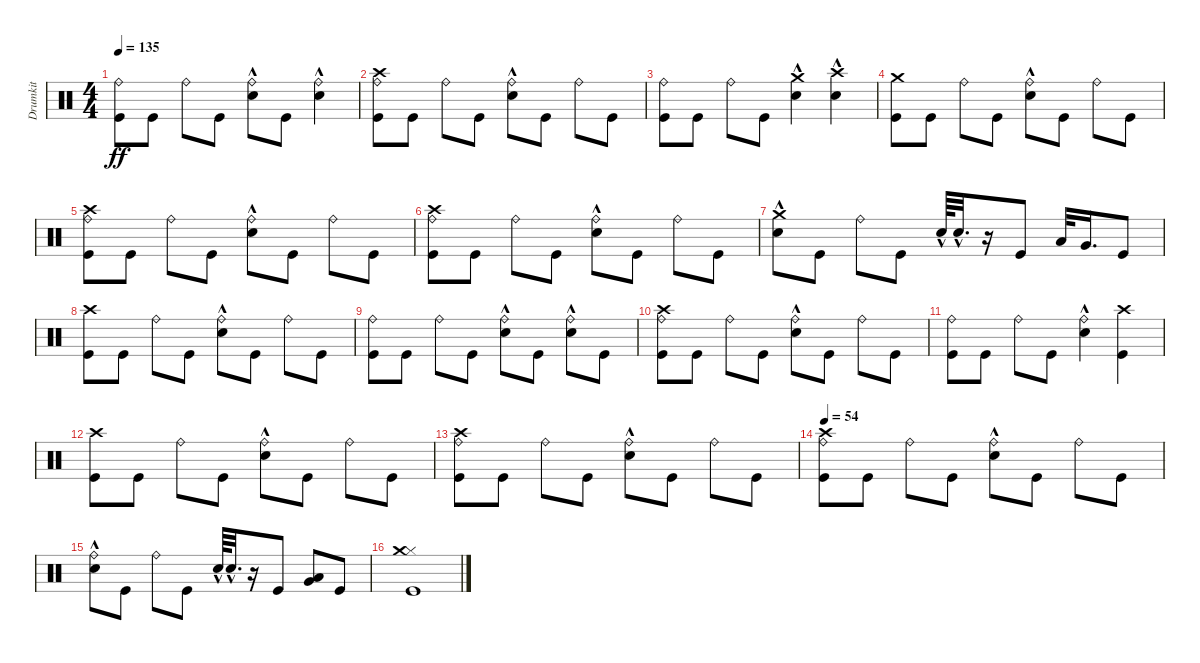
\track ("Drumkit" "Drumkit") {instrument percussion}
\staff {score}
\articulation defaults
\ts (4 4)
\tempo 135
\clef neutral
\ks c
("Ride (bell)" "Kick (hit)").8{dy ff} "Kick (hit)".8 "Ride (bell)".8 "Kick (hit)".8 ("Snare (hit) 2"{hac} "Ride (bell)").8 "Kick (hit)".8 ("Snare (hit) 2"{hac} "Ride (bell)").4 |
("Kick (hit)" "Crash high (hit)" "Ride (bell)").8 "Kick (hit)".8 "Ride (bell)".8 "Kick (hit)".8 ("Ride (bell)" "Snare (hit) 2"{hac}).8 "Kick (hit)".8 "Ride (bell)".8 "Kick (hit)".8 |
("Ride (bell)" "Kick (hit)").8 "Kick (hit)".8 "Ride (bell)".8 "Kick (hit)".8 ("Snare (hit) 2"{hac} "Crash medium (hit)").4 ("Crash high (hit)" "Snare (hit) 2"{hac}).4 |
("Kick (hit)" "Crash medium (hit)").8 "Kick (hit)".8 "Ride (bell)".8 "Kick (hit)".8 ("Ride (bell)" "Snare (hit) 2"{hac}).8 "Kick (hit)".8 "Ride (bell)".8 "Kick (hit)".8 |
("Kick (hit)" "Crash high (hit)" "Ride (bell)").8 "Kick (hit)".8 "Ride (bell)".8 "Kick (hit)".8 ("Ride (bell)" "Snare (hit) 2"{hac}).8 "Kick (hit)".8 "Ride (bell)".8 "Kick (hit)".8 |
("Kick (hit)" "Crash high (hit)" "Ride (bell)").8 "Kick (hit)".8 "Ride (bell)".8 "Kick (hit)".8 ("Ride (bell)" "Snare (hit) 2"{hac}).8 "Kick (hit)".8 "Ride (bell)".8 "Kick (hit)".8 |
("Snare (hit) 2"{hac} "Crash medium (hit)").8 "Kick (hit)".8 "Ride (bell)".8 "Kick (hit)".8 "Snare (hit) 2"{hac}.64 "Snare (hit) 2"{hac}.32{d} r.16 "Kick (hit)".8 "Low Tom (hit)".32 "Very Low Tom (hit)".16{d} "Kick (hit)".8 |
("Kick (hit)" "Crash high (hit)").8 "Kick (hit)".8 "Ride (bell)".8 "Kick (hit)".8 ("Ride (bell)" "Snare (hit) 2"{hac}).8 "Kick (hit)".8 "Ride (bell)".8 "Kick (hit)".8 |
("Ride (bell)" "Kick (hit)").8 "Kick (hit)".8 "Ride (bell)".8 "Kick (hit)".8 ("Snare (hit) 2"{hac} "Ride (bell)").8 "Kick (hit)".8 ("Snare (hit) 2"{hac} "Ride (bell)").8 "Kick (hit)".8 |
("Kick (hit)" "Crash high (hit)" "Ride (bell)").8 "Kick (hit)".8 "Ride (bell)".8 "Kick (hit)".8 ("Ride (bell)" "Snare (hit) 2"{hac}).8 "Kick (hit)".8 "Ride (bell)".8 "Kick (hit)".8 |
("Ride (bell)" "Kick (hit)").8 "Kick (hit)".8 "Ride (bell)".8 "Kick (hit)".8 ("Ride (bell)" "Snare (hit) 2"{hac}).4 ("Kick (hit)" "Crash high (hit)").4 |
("Kick (hit)" "Crash high (hit)").8 "Kick (hit)".8 "Ride (bell)".8 "Kick (hit)".8 ("Ride (bell)" "Snare (hit) 2"{hac}).8 "Kick (hit)".8 "Ride (bell)".8 "Kick (hit)".8 |
("Kick (hit)" "Crash high (hit)" "Ride (bell)").8 "Kick (hit)".8 "Ride (bell)".8 "Kick (hit)".8 ("Ride (bell)" "Snare (hit) 2"{hac}).8 "Kick (hit)".8 "Ride (bell)".8 "Kick (hit)".8 |
\tempo 54
("Kick (hit)" "Crash high (hit)" "Ride (bell)").8 "Kick (hit)".8 "Ride (bell)".8 "Kick (hit)".8 ("Ride (bell)" "Snare (hit) 2"{hac}).8 "Kick (hit)".8 "Ride (bell)".8 "Kick (hit)".8 |
("Snare (hit) 2"{hac} "Ride (bell)").8 "Kick (hit)".8 "Ride (bell)".8 "Kick (hit)".8 "Snare (hit) 2"{hac}.64 "Snare (hit) 2"{hac}.32{d} r.16 "Kick (hit)".8 ("Low Tom (hit)" "Very Low Tom (hit)").8 "Kick (hit)".8 |
("Kick (hit)" "Hi-Hat (closed)" "Crash medium (hit)").1
